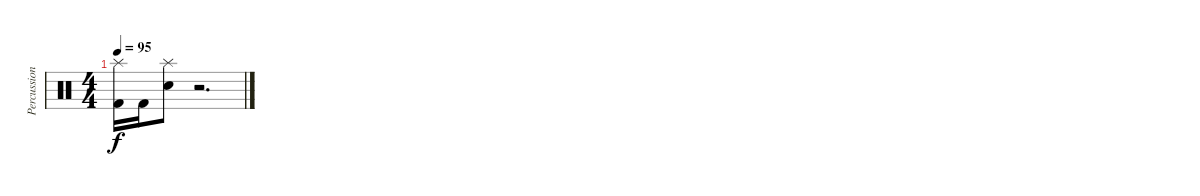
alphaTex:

\track ("Percussions" "Percussion") {instrument percussion}
\staff {score}
\articulation defaults
\ts (4 4)
\tempo 95
\clef neutral
\ks c
("Kick (hit) 2" "Splash (hit)").16{dy f} "Kick (hit) 2".16 ("Snare (hit) 2" "Splash (hit)").8 r.2{d}
